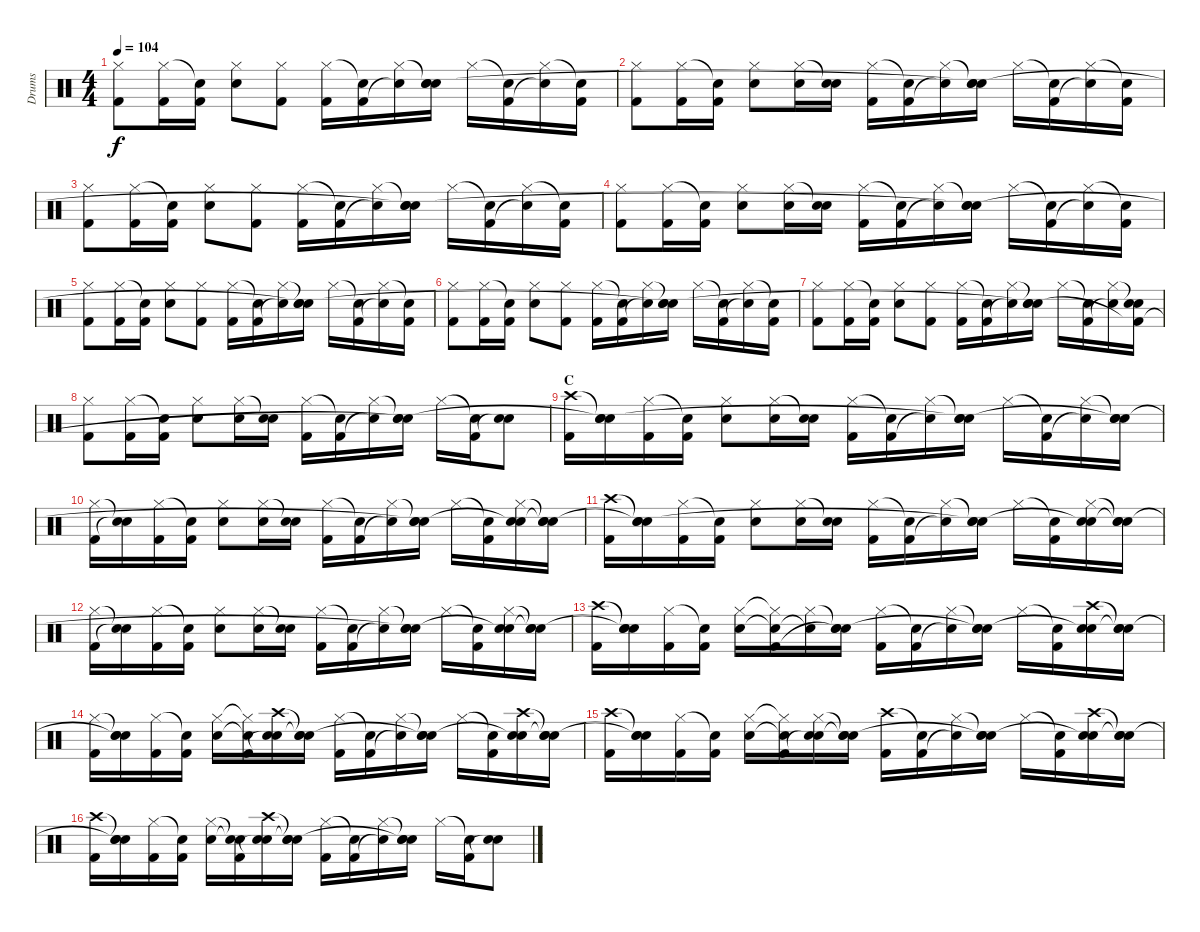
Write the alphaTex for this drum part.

\track ("Drums" "Drums") {instrument percussion}
\staff {score}
\articulation defaults
\ts (4 4)
\tempo 104
\clef neutral
\ks c
("Hi-Hat (closed)" "Kick (hit) 2").8{dy f} ("Hi-Hat (closed)" "Kick (hit) 2").16 ("Snare (hit)"{t} "Kick (hit) 2").16 ("Hi-Hat (closed)" "Snare (hit) 2").8 ("Hi-Hat (closed)" "Kick (hit) 2").8 ("Hi-Hat (closed)" "Kick (hit) 2").16 ("Snare (hit)"{t} "Kick (hit) 2").16 ("Hi-Hat (closed)" "Snare (hit)"{t}).16 ("Snare (hit)"{t} "Snare (hit) 2" "Snare (hit)"{t}).16 "Hi-Hat (closed)".16 ("Snare (hit)"{t} "Kick (hit) 2").16 ("Hi-Hat (closed)" "Snare (hit)"{t}).16 ("Snare (hit)"{t} "Kick (hit) 2").16 |
("Hi-Hat (closed)" "Kick (hit) 2").8 ("Hi-Hat (closed)" "Kick (hit) 2").16 ("Snare (hit)"{t} "Kick (hit) 2").16 ("Hi-Hat (closed)" "Snare (hit) 2").8 ("Hi-Hat (closed)" "Snare (hit) 2").16 ("Snare (hit)"{t} "Snare (hit) 2").16 ("Hi-Hat (closed)" "Kick (hit) 2").16 ("Snare (hit)"{t} "Kick (hit) 2").16 ("Hi-Hat (closed)" "Snare (hit)"{t}).16 ("Snare (hit)"{t} "Snare (hit) 2" "Snare (hit)"{t}).16 "Hi-Hat (closed)".16 ("Snare (hit)"{t} "Kick (hit) 2").16 ("Hi-Hat (closed)" "Snare (hit)"{t}).16 ("Snare (hit)"{t} "Kick (hit) 2").16 |
("Hi-Hat (closed)" "Kick (hit) 2").8 ("Hi-Hat (closed)" "Kick (hit) 2").16 ("Snare (hit)"{t} "Kick (hit) 2").16 ("Hi-Hat (closed)" "Snare (hit) 2").8 ("Hi-Hat (closed)" "Kick (hit) 2").8 ("Hi-Hat (closed)" "Kick (hit) 2").16 ("Snare (hit)"{t} "Kick (hit) 2").16 ("Hi-Hat (closed)" "Snare (hit)"{t}).16 ("Snare (hit)"{t} "Snare (hit) 2" "Snare (hit)"{t}).16 "Hi-Hat (closed)".16 ("Snare (hit)"{t} "Kick (hit) 2").16 ("Hi-Hat (closed)" "Snare (hit)"{t}).16 ("Snare (hit)"{t} "Kick (hit) 2").16 |
("Hi-Hat (closed)" "Kick (hit) 2").8 ("Hi-Hat (closed)" "Kick (hit) 2").16 ("Snare (hit)"{t} "Kick (hit) 2").16 ("Hi-Hat (closed)" "Snare (hit) 2").8 ("Hi-Hat (closed)" "Snare (hit) 2").16 ("Snare (hit)"{t} "Snare (hit) 2").16 ("Hi-Hat (closed)" "Kick (hit) 2").16 ("Snare (hit)"{t} "Kick (hit) 2").16 ("Hi-Hat (closed)" "Snare (hit)"{t}).16 ("Snare (hit)"{t} "Snare (hit) 2" "Snare (hit)"{t}).16 "Hi-Hat (closed)".16 ("Snare (hit)"{t} "Kick (hit) 2").16 ("Hi-Hat (closed)" "Snare (hit)"{t}).16 ("Snare (hit)"{t} "Kick (hit) 2").16 |
("Hi-Hat (closed)" "Kick (hit) 2").8 ("Hi-Hat (closed)" "Kick (hit) 2").16 ("Snare (hit)"{t} "Kick (hit) 2").16 ("Hi-Hat (closed)" "Snare (hit) 2").8 ("Hi-Hat (closed)" "Kick (hit) 2").8 ("Hi-Hat (closed)" "Kick (hit) 2").16 ("Snare (hit)"{t} "Kick (hit) 2").16 ("Hi-Hat (closed)" "Snare (hit)"{t}).16 ("Snare (hit)"{t} "Snare (hit) 2" "Snare (hit)"{t}).16 "Hi-Hat (closed)".16 ("Snare (hit)"{t} "Kick (hit) 2").16 ("Hi-Hat (closed)" "Snare (hit)"{t}).16 ("Snare (hit)"{t} "Kick (hit) 2").16 |
("Hi-Hat (closed)" "Kick (hit) 2").8 ("Hi-Hat (closed)" "Kick (hit) 2").16 ("Snare (hit)"{t} "Kick (hit) 2").16 ("Hi-Hat (closed)" "Snare (hit) 2").8 ("Hi-Hat (closed)" "Kick (hit) 2").8 ("Hi-Hat (closed)" "Kick (hit) 2").16 ("Snare (hit)"{t} "Kick (hit) 2").16 ("Hi-Hat (closed)" "Snare (hit)"{t}).16 ("Snare (hit)"{t} "Snare (hit) 2" "Snare (hit)"{t}).16 "Hi-Hat (closed)".16 ("Snare (hit)"{t} "Kick (hit) 2").16 ("Hi-Hat (closed)" "Snare (hit)"{t}).16 ("Snare (hit)"{t} "Kick (hit) 2").16 |
("Hi-Hat (closed)" "Kick (hit) 2").8 ("Hi-Hat (closed)" "Kick (hit) 2").16 ("Snare (hit)"{t} "Kick (hit) 2").16 ("Hi-Hat (closed)" "Snare (hit) 2").8 ("Hi-Hat (closed)" "Kick (hit) 2").8 ("Hi-Hat (closed)" "Kick (hit) 2").16 ("Snare (hit)"{t} "Kick (hit) 2").16 ("Hi-Hat (closed)" "Snare (hit)"{t}).16 ("Snare (hit)"{t} "Snare (hit) 2" "Snare (hit)"{t}).16 "Hi-Hat (closed)".16 ("Snare (hit)"{t} "Kick (hit) 2").16 ("Hi-Hat (closed)" "Snare (hit)"{t}).16 ("Snare (hit)"{t} "Snare (hit) 2" "Kick (hit) 2"{t}).16 |
("Hi-Hat (closed)" "Kick (hit) 2").8 ("Hi-Hat (closed)" "Kick (hit) 2").16 ("Snare (hit)"{t} "Kick (hit) 2").16 ("Hi-Hat (closed)" "Snare (hit) 2").8 ("Hi-Hat (closed)" "Snare (hit) 2").16 ("Snare (hit)"{t} "Snare (hit) 2").16 ("Hi-Hat (closed)" "Kick (hit) 2").16 ("Snare (hit)"{t} "Kick (hit) 2").16 ("Hi-Hat (closed)" "Snare (hit)"{t}).16 ("Snare (hit)"{t} "Snare (hit) 2" "Snare (hit)"{t}).16 "Hi-Hat (closed)".16 ("Snare (hit)"{t} "Kick (hit) 2").16 ("Snare (hit) 2" "Snare (hit)"{t}).8 |
\section ("" "C")
("Crash high (hit)" "Kick (hit) 2").16 ("Snare (hit)"{t} "Snare (hit) 2" "Snare (hit)"{t}).16 ("Hi-Hat (closed)" "Kick (hit) 2").16 ("Snare (hit)"{t} "Kick (hit) 2").16 ("Hi-Hat (closed)" "Snare (hit) 2").8 ("Hi-Hat (closed)" "Snare (hit) 2").16 ("Snare (hit)"{t} "Snare (hit) 2").16 ("Hi-Hat (closed)" "Kick (hit) 2").16 ("Snare (hit)"{t} "Kick (hit) 2").16 ("Hi-Hat (closed)" "Snare (hit)"{t}).16 ("Snare (hit)"{t} "Snare (hit) 2" "Snare (hit)"{t}).16 "Hi-Hat (closed)".16 ("Snare (hit)"{t} "Kick (hit) 2").16 ("Hi-Hat (closed)" "Snare (hit)"{t}).16 ("Snare (hit)"{t} "Snare (hit) 2" "Snare (hit)"{t}).16 |
("Hi-Hat (closed)" "Kick (hit) 2").16 ("Snare (hit)"{t} "Snare (hit)"{t}).16 ("Hi-Hat (closed)" "Kick (hit) 2").16 ("Snare (hit)"{t} "Kick (hit) 2").16 ("Hi-Hat (closed)" "Snare (hit) 2").8 ("Hi-Hat (closed)" "Snare (hit) 2").16 ("Snare (hit)"{t} "Snare (hit) 2").16 ("Hi-Hat (closed)" "Kick (hit) 2").16 ("Snare (hit)"{t} "Kick (hit) 2").16 ("Hi-Hat (closed)" "Snare (hit)"{t}).16 ("Snare (hit)"{t} "Snare (hit) 2" "Snare (hit)"{t}).16 "Hi-Hat (closed)".16 ("Snare (hit)"{t} "Kick (hit) 2").16 ("Hi-Hat (closed)" "Snare (hit) 2" "Snare (hit)"{t}).16 ("Snare (hit)"{t} "Snare (hit) 2" "Snare (hit)"{t}).16 |
("Crash high (hit)" "Kick (hit) 2").16 ("Snare (hit)"{t} "Snare (hit) 2" "Snare (hit)"{t}).16 ("Hi-Hat (closed)" "Kick (hit) 2").16 ("Snare (hit)"{t} "Kick (hit) 2").16 ("Hi-Hat (closed)" "Snare (hit) 2").8 ("Hi-Hat (closed)" "Snare (hit) 2").16 ("Snare (hit)"{t} "Snare (hit) 2").16 ("Hi-Hat (closed)" "Kick (hit) 2").16 ("Snare (hit)"{t} "Kick (hit) 2").16 ("Hi-Hat (closed)" "Snare (hit)"{t}).16 ("Snare (hit)"{t} "Snare (hit) 2" "Snare (hit)"{t}).16 "Hi-Hat (closed)".16 ("Snare (hit)"{t} "Kick (hit) 2").16 ("Hi-Hat (closed)" "Snare (hit) 2" "Snare (hit)"{t}).16 ("Snare (hit)"{t} "Snare (hit) 2" "Snare (hit)"{t}).16 |
("Hi-Hat (closed)" "Kick (hit) 2").16 ("Snare (hit)"{t} "Snare (hit)"{t}).16 ("Hi-Hat (closed)" "Kick (hit) 2").16 ("Snare (hit)"{t} "Kick (hit) 2").16 ("Hi-Hat (closed)" "Snare (hit) 2").8 ("Hi-Hat (closed)" "Snare (hit) 2").16 ("Snare (hit)"{t} "Snare (hit) 2").16 ("Hi-Hat (closed)" "Kick (hit) 2").16 ("Snare (hit)"{t} "Kick (hit) 2").16 ("Hi-Hat (closed)" "Snare (hit)"{t}).16 ("Snare (hit)"{t} "Snare (hit) 2" "Snare (hit)"{t}).16 "Hi-Hat (closed)".16 ("Snare (hit)"{t} "Kick (hit) 2").16 ("Hi-Hat (closed)" "Snare (hit) 2" "Snare (hit)"{t}).16 ("Snare (hit)"{t} "Snare (hit) 2" "Snare (hit)"{t}).16 |
("Crash high (hit)" "Kick (hit) 2").16 ("Snare (hit)"{t} "Snare (hit) 2" "Snare (hit)"{t}).16 ("Hi-Hat (closed)" "Kick (hit) 2").16 ("Snare (hit)"{t} "Kick (hit) 2").16 ("Hi-Hat (closed)" "Snare (hit) 2").16 ("Hi-Hat (closed)"{t} "Snare (hit) 2"{t} "Kick (hit) 2").16 ("Hi-Hat (closed)" "Snare (hit)"{t}).16 ("Snare (hit)"{t} "Snare (hit) 2" "Snare (hit)"{t}).16 ("Hi-Hat (closed)" "Kick (hit) 2").16 ("Snare (hit)"{t} "Kick (hit) 2").16 ("Hi-Hat (closed)" "Snare (hit)"{t}).16 ("Snare (hit)"{t} "Snare (hit) 2" "Snare (hit)"{t}).16 "Hi-Hat (closed)".16 ("Snare (hit)"{t} "Kick (hit) 2").16 ("Crash high (hit)" "Snare (hit) 2" "Snare (hit)"{t}).16 ("Snare (hit)"{t} "Snare (hit) 2" "Snare (hit)"{t}).16 |
("Hi-Hat (closed)" "Kick (hit) 2").16 ("Snare (hit)"{t} "Snare (hit) 2" "Snare (hit)"{t}).16 ("Hi-Hat (closed)" "Kick (hit) 2").16 ("Snare (hit)"{t} "Kick (hit) 2").16 ("Hi-Hat (closed)" "Snare (hit) 2").16 ("Hi-Hat (closed)"{t} "Snare (hit) 2"{t} "Kick (hit) 2").16 ("Crash high (hit)" "Snare (hit) 2" "Snare (hit)"{t}).16 ("Snare (hit)"{t} "Snare (hit) 2" "Snare (hit)"{t}).16 ("Hi-Hat (closed)" "Kick (hit) 2").16 ("Snare (hit)"{t} "Kick (hit) 2").16 ("Hi-Hat (closed)" "Snare (hit)"{t}).16 ("Snare (hit)"{t} "Snare (hit) 2" "Snare (hit)"{t}).16 "Hi-Hat (closed)".16 ("Snare (hit)"{t} "Kick (hit) 2").16 ("Crash high (hit)" "Snare (hit) 2" "Snare (hit)"{t}).16 ("Snare (hit)"{t} "Snare (hit) 2" "Snare (hit)"{t}).16 |
("Crash high (hit)" "Kick (hit) 2").16 ("Snare (hit)"{t} "Snare (hit) 2" "Snare (hit)"{t}).16 ("Hi-Hat (closed)" "Kick (hit) 2").16 ("Snare (hit)"{t} "Kick (hit) 2").16 ("Hi-Hat (closed)" "Snare (hit) 2").16 ("Hi-Hat (closed)"{t} "Snare (hit) 2"{t} "Kick (hit) 2").16 ("Hi-Hat (closed)" "Snare (hit) 2" "Snare (hit)"{t}).16 ("Snare (hit)"{t} "Snare (hit) 2" "Snare (hit)"{t}).16 ("Crash high (hit)" "Kick (hit) 2").16 ("Snare (hit)"{t} "Kick (hit) 2").16 ("Hi-Hat (closed)" "Snare (hit)"{t}).16 ("Snare (hit)"{t} "Snare (hit) 2" "Snare (hit)"{t}).16 "Hi-Hat (closed)".16 ("Snare (hit)"{t} "Kick (hit) 2").16 ("Crash high (hit)" "Snare (hit) 2" "Snare (hit)"{t}).16 ("Snare (hit)"{t} "Snare (hit) 2" "Snare (hit)"{t}).16 |
("Crash high (hit)" "Kick (hit) 2").16 ("Snare (hit)"{t} "Snare (hit) 2" "Snare (hit)"{t}).16 ("Hi-Hat (closed)" "Kick (hit) 2").16 ("Snare (hit)"{t} "Kick (hit) 2").16 ("Hi-Hat (closed)" "Snare (hit) 2").16 ("Snare (hit)"{t} "Snare (hit)"{t} "Kick (hit) 2").16 ("Crash high (hit)" "Snare (hit) 2" "Snare (hit)"{t}).16 ("Snare (hit)"{t} "Snare (hit) 2" "Snare (hit)"{t}).16 ("Hi-Hat (closed)" "Kick (hit) 2").16 ("Snare (hit)"{t} "Kick (hit) 2").16 ("Hi-Hat (closed)" "Snare (hit)"{t}).16 ("Snare (hit)"{t} "Snare (hit) 2" "Snare (hit)"{t}).16 "Hi-Hat (closed)".16 ("Snare (hit)"{t} "Kick (hit) 2").16 ("Snare (hit) 2" "Snare (hit)"{t}).8
